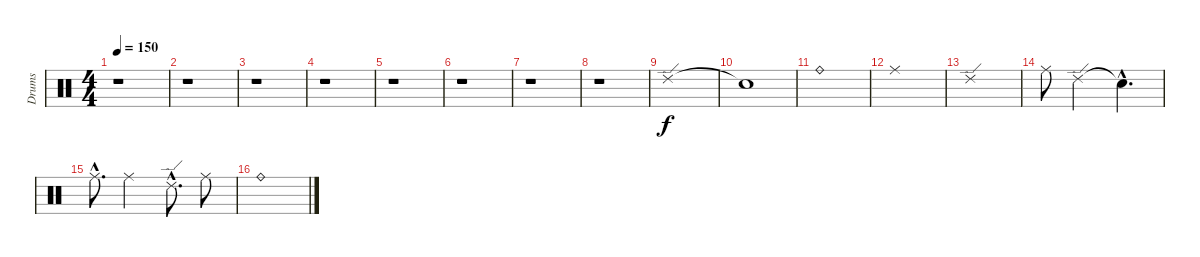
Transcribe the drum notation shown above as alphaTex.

\track ("Drums" "Drums") {instrument percussion}
\staff {score}
\articulation defaults
\ts (4 4)
\tempo 150
\clef neutral
\ks c
r.1{dy f} |
r.1 |
r.1 |
r.1 |
r.1 |
r.1 |
r.1 |
r.1 |
"Ride (edge) 2".1 |
"Snare (hit)"{t}.1 |
"Ride (bell)".1 |
"Ride (middle)".1 |
"Ride (edge) 2".1 |
"Ride (middle)".8 "Ride (edge) 2".2 "Snare (hit)"{hac t}.4{d} |
"Ride (middle)"{hac}.8{d} "Ride (middle)".2 "Ride (edge) 2"{hac}.8{d} "Ride (middle)".8 |
"Ride (bell)".1
